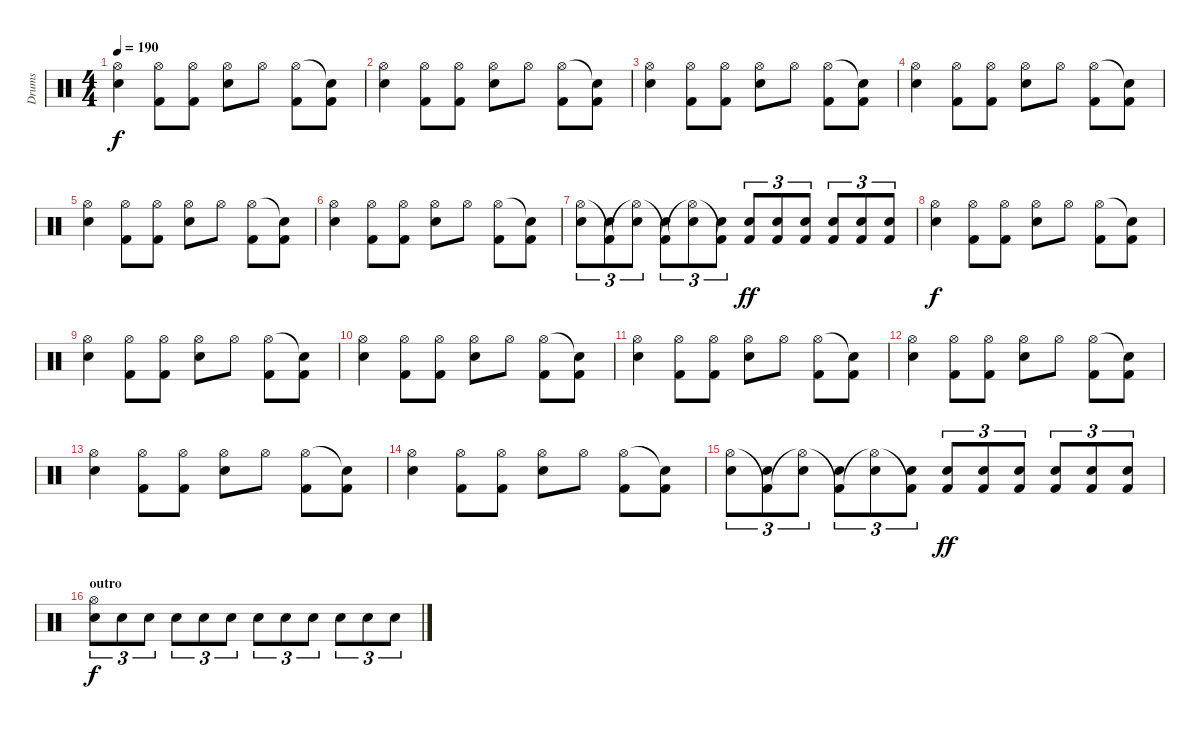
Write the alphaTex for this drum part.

\track ("Drums" "Drums") {instrument percussion}
\staff {score}
\articulation defaults
\ts (4 4)
\tempo 190
\clef neutral
\ks c
("Electric Snare (hit)" "Hi-Hat (open)").4{dy f} ("Hi-Hat (open)" "Kick (hit) 2").8 ("Hi-Hat (open)" "Kick (hit) 2").8 ("Hi-Hat (open)" "Electric Snare (hit)").8 "Hi-Hat (open)".8 ("Kick (hit) 2" "Hi-Hat (open)").8 ("Kick (hit) 2" "Snare (hit)"{t}).8 |
("Electric Snare (hit)" "Hi-Hat (open)").4 ("Hi-Hat (open)" "Kick (hit) 2").8 ("Hi-Hat (open)" "Kick (hit) 2").8 ("Hi-Hat (open)" "Electric Snare (hit)").8 "Hi-Hat (open)".8 ("Kick (hit) 2" "Hi-Hat (open)").8 ("Kick (hit) 2" "Snare (hit)"{t}).8 |
("Electric Snare (hit)" "Hi-Hat (open)").4 ("Hi-Hat (open)" "Kick (hit) 2").8 ("Hi-Hat (open)" "Kick (hit) 2").8 ("Hi-Hat (open)" "Electric Snare (hit)").8 "Hi-Hat (open)".8 ("Kick (hit) 2" "Hi-Hat (open)").8 ("Kick (hit) 2" "Snare (hit)"{t}).8 |
("Electric Snare (hit)" "Hi-Hat (open)").4 ("Hi-Hat (open)" "Kick (hit) 2").8 ("Hi-Hat (open)" "Kick (hit) 2").8 ("Hi-Hat (open)" "Electric Snare (hit)").8 "Hi-Hat (open)".8 ("Kick (hit) 2" "Hi-Hat (open)").8 ("Kick (hit) 2" "Snare (hit)"{t}).8 |
("Electric Snare (hit)" "Hi-Hat (open)").4 ("Hi-Hat (open)" "Kick (hit) 2").8 ("Hi-Hat (open)" "Kick (hit) 2").8 ("Hi-Hat (open)" "Electric Snare (hit)").8 "Hi-Hat (open)".8 ("Kick (hit) 2" "Hi-Hat (open)").8 ("Kick (hit) 2" "Snare (hit)"{t}).8 |
("Electric Snare (hit)" "Hi-Hat (open)").4 ("Hi-Hat (open)" "Kick (hit) 2").8 ("Hi-Hat (open)" "Kick (hit) 2").8 ("Hi-Hat (open)" "Electric Snare (hit)").8 "Hi-Hat (open)".8 ("Kick (hit) 2" "Hi-Hat (open)").8 ("Kick (hit) 2" "Snare (hit)"{t}).8 |
("Electric Snare (hit)" "Hi-Hat (open)").8{tu (3 2)} ("Electric Snare (hit)" "Kick (hit) 2"{t}).8{tu (3 2)} ("Electric Snare (hit)" "Hi-Hat (open)"{t}).8{tu (3 2)} ("Electric Snare (hit)" "Kick (hit) 2"{t}).8{tu (3 2)} ("Electric Snare (hit)" "Hi-Hat (open)"{t}).8{tu (3 2)} ("Electric Snare (hit)" "Kick (hit) 2"{t}).8{tu (3 2)} ("Electric Snare (hit)" "Kick (hit) 2").8{tu (3 2) dy ff} ("Electric Snare (hit)" "Kick (hit) 2").8{tu (3 2)} ("Electric Snare (hit)" "Kick (hit) 2").8{tu (3 2)} ("Electric Snare (hit)" "Kick (hit) 2").8{tu (3 2)} ("Electric Snare (hit)" "Kick (hit) 2").8{tu (3 2)} ("Electric Snare (hit)" "Kick (hit) 2").8{tu (3 2)} |
("Electric Snare (hit)" "Hi-Hat (open)").4{dy f} ("Hi-Hat (open)" "Kick (hit) 2").8 ("Hi-Hat (open)" "Kick (hit) 2").8 ("Hi-Hat (open)" "Electric Snare (hit)").8 "Hi-Hat (open)".8 ("Kick (hit) 2" "Hi-Hat (open)").8 ("Kick (hit) 2" "Snare (hit)"{t}).8 |
("Electric Snare (hit)" "Hi-Hat (open)").4 ("Hi-Hat (open)" "Kick (hit) 2").8 ("Hi-Hat (open)" "Kick (hit) 2").8 ("Hi-Hat (open)" "Electric Snare (hit)").8 "Hi-Hat (open)".8 ("Kick (hit) 2" "Hi-Hat (open)").8 ("Kick (hit) 2" "Snare (hit)"{t}).8 |
("Electric Snare (hit)" "Hi-Hat (open)").4 ("Hi-Hat (open)" "Kick (hit) 2").8 ("Hi-Hat (open)" "Kick (hit) 2").8 ("Hi-Hat (open)" "Electric Snare (hit)").8 "Hi-Hat (open)".8 ("Kick (hit) 2" "Hi-Hat (open)").8 ("Kick (hit) 2" "Snare (hit)"{t}).8 |
("Electric Snare (hit)" "Hi-Hat (open)").4 ("Hi-Hat (open)" "Kick (hit) 2").8 ("Hi-Hat (open)" "Kick (hit) 2").8 ("Hi-Hat (open)" "Electric Snare (hit)").8 "Hi-Hat (open)".8 ("Kick (hit) 2" "Hi-Hat (open)").8 ("Kick (hit) 2" "Snare (hit)"{t}).8 |
("Electric Snare (hit)" "Hi-Hat (open)").4 ("Hi-Hat (open)" "Kick (hit) 2").8 ("Hi-Hat (open)" "Kick (hit) 2").8 ("Hi-Hat (open)" "Electric Snare (hit)").8 "Hi-Hat (open)".8 ("Kick (hit) 2" "Hi-Hat (open)").8 ("Kick (hit) 2" "Snare (hit)"{t}).8 |
("Electric Snare (hit)" "Hi-Hat (open)").4 ("Hi-Hat (open)" "Kick (hit) 2").8 ("Hi-Hat (open)" "Kick (hit) 2").8 ("Hi-Hat (open)" "Electric Snare (hit)").8 "Hi-Hat (open)".8 ("Kick (hit) 2" "Hi-Hat (open)").8 ("Kick (hit) 2" "Snare (hit)"{t}).8 |
("Electric Snare (hit)" "Hi-Hat (open)").4 ("Hi-Hat (open)" "Kick (hit) 2").8 ("Hi-Hat (open)" "Kick (hit) 2").8 ("Hi-Hat (open)" "Electric Snare (hit)").8 "Hi-Hat (open)".8 ("Kick (hit) 2" "Hi-Hat (open)").8 ("Kick (hit) 2" "Snare (hit)"{t}).8 |
("Electric Snare (hit)" "Hi-Hat (open)").8{tu (3 2)} ("Electric Snare (hit)" "Kick (hit) 2"{t}).8{tu (3 2)} ("Electric Snare (hit)" "Hi-Hat (open)"{t}).8{tu (3 2)} ("Electric Snare (hit)" "Kick (hit) 2"{t}).8{tu (3 2)} ("Electric Snare (hit)" "Hi-Hat (open)"{t}).8{tu (3 2)} ("Electric Snare (hit)" "Kick (hit) 2"{t}).8{tu (3 2)} ("Electric Snare (hit)" "Kick (hit) 2").8{tu (3 2) dy ff} ("Electric Snare (hit)" "Kick (hit) 2").8{tu (3 2)} ("Electric Snare (hit)" "Kick (hit) 2").8{tu (3 2)} ("Electric Snare (hit)" "Kick (hit) 2").8{tu (3 2)} ("Electric Snare (hit)" "Kick (hit) 2").8{tu (3 2)} ("Electric Snare (hit)" "Kick (hit) 2").8{tu (3 2)} |
\section ("" "outro")
("Electric Snare (hit)" "Hi-Hat (open)").8{tu (3 2) dy f} "Electric Snare (hit)".8{tu (3 2)} "Electric Snare (hit)".8{tu (3 2)} "Electric Snare (hit)".8{tu (3 2)} "Electric Snare (hit)".8{tu (3 2)} "Electric Snare (hit)".8{tu (3 2)} "Electric Snare (hit)".8{tu (3 2)} "Electric Snare (hit)".8{tu (3 2)} "Electric Snare (hit)".8{tu (3 2)} "Electric Snare (hit)".8{tu (3 2)} "Electric Snare (hit)".8{tu (3 2)} "Electric Snare (hit)".8{tu (3 2)}
